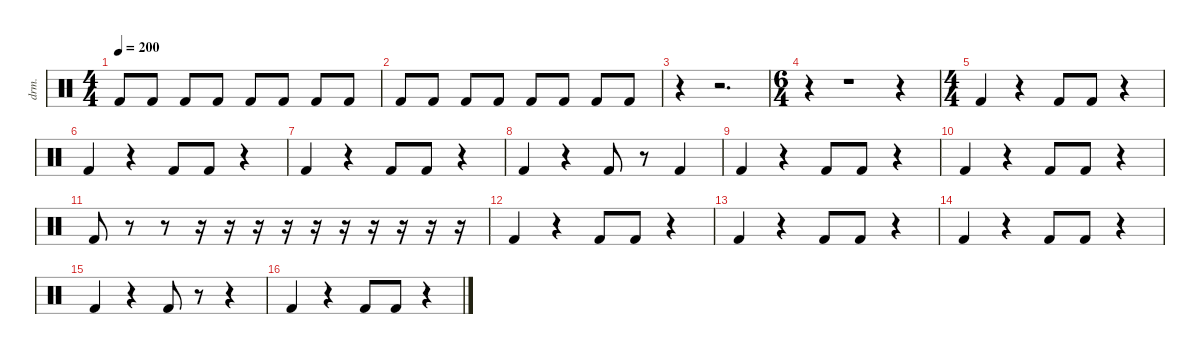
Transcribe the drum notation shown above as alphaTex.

\defaultSystemsLayout 4
\hideDynamics
\bracketExtendMode nobrackets
\track ("Percussion" "drm.") {instrument percussion}
\staff {score}
\articulation defaults
\ts (4 4)
\tempo 200
\clef neutral
\ks c "Kick (hit) 2".8{dy f} "Kick (hit) 2".8 "Kick (hit) 2".8 "Kick (hit) 2".8 "Kick (hit) 2".8 "Kick (hit) 2".8 "Kick (hit) 2".8 "Kick (hit) 2".8
|
"Kick (hit) 2".8 "Kick (hit) 2".8 "Kick (hit) 2".8 "Kick (hit) 2".8 "Kick (hit) 2".8 "Kick (hit) 2".8 "Kick (hit) 2".8 "Kick (hit) 2".8 |
r.4 r.2{d} |
\ts (6 4)
\beaming (8 6 6)
r.4 r.1 r.4 |
\ts (4 4)
\beaming (8 2 2 2 2)
"Kick (hit) 2".4 r.4 "Kick (hit) 2".8 "Kick (hit) 2".8 r.4 |
"Kick (hit) 2".4 r.4 "Kick (hit) 2".8 "Kick (hit) 2".8 r.4 |
"Kick (hit) 2".4 r.4 "Kick (hit) 2".8 "Kick (hit) 2".8 r.4 |
"Kick (hit) 2".4 r.4 "Kick (hit) 2".8 r.8 "Kick (hit) 2".4 |
"Kick (hit) 2".4 r.4 "Kick (hit) 2".8 "Kick (hit) 2".8 r.4 |
"Kick (hit) 2".4 r.4 "Kick (hit) 2".8 "Kick (hit) 2".8 r.4 |
"Kick (hit) 2".8 r.8 r.8 r.16 r.16 r.16 r.16 r.16 r.16 r.16 r.16 r.16 r.16 |
"Kick (hit) 2".4 r.4 "Kick (hit) 2".8 "Kick (hit) 2".8 r.4 |
"Kick (hit) 2".4 r.4 "Kick (hit) 2".8 "Kick (hit) 2".8 r.4 |
"Kick (hit) 2".4 r.4 "Kick (hit) 2".8 "Kick (hit) 2".8 r.4 |
"Kick (hit) 2".4 r.4 "Kick (hit) 2".8 r.8 r.4 |
"Kick (hit) 2".4 r.4 "Kick (hit) 2".8 "Kick (hit) 2".8 r.4
